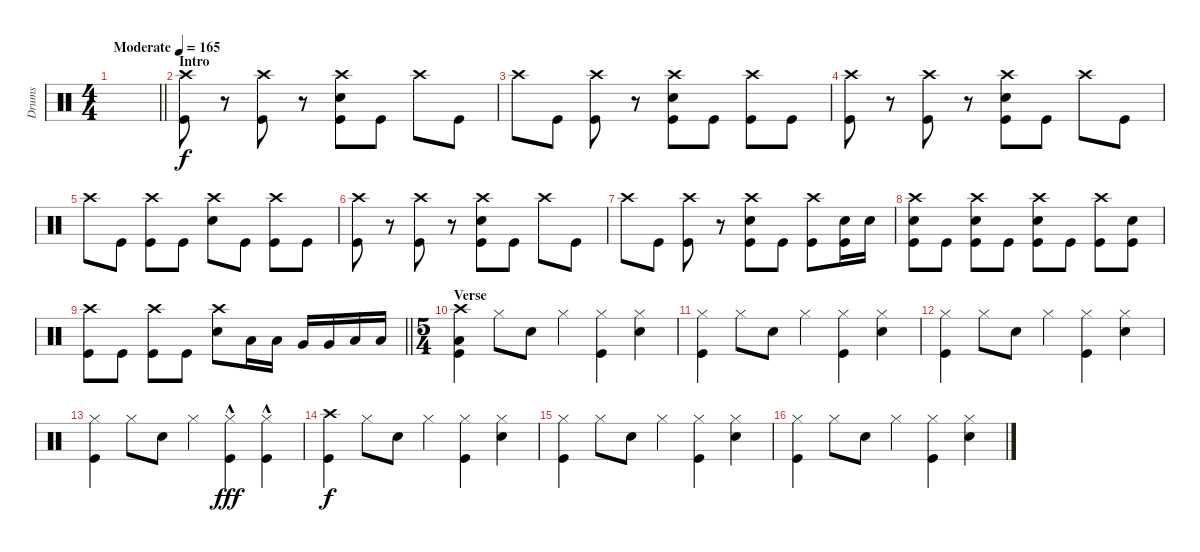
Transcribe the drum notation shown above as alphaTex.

\track ("Drums" "Drums") {instrument percussion}
\staff {score}
\articulation defaults
\ts (4 4)
\tempo (165 "Moderate")
\clef neutral
\barLineRight lightlight
\ks c
|
\section ("" "Intro")
("Crash high (hit)" "Kick (hit)").8 r.8 ("Crash high (hit)" "Kick (hit)").8 r.8 ("Crash high (hit)" "Snare (hit) 2" "Kick (hit)").8 "Kick (hit)".8 "Crash high (hit)".8 "Kick (hit)".8 |
"Crash high (hit)".8 "Kick (hit)".8 ("Crash high (hit)" "Kick (hit)").8 r.8 ("Crash high (hit)" "Snare (hit) 2" "Kick (hit)").8 "Kick (hit)".8 ("Crash high (hit)" "Kick (hit)").8 "Kick (hit)".8 |
("Crash high (hit)" "Kick (hit)").8 r.8 ("Crash high (hit)" "Kick (hit)").8 r.8 ("Crash high (hit)" "Snare (hit) 2" "Kick (hit)").8 "Kick (hit)".8 "Crash high (hit)".8 "Kick (hit)".8 |
"Crash high (hit)".8 "Kick (hit)".8 ("Crash high (hit)" "Kick (hit)").8 "Kick (hit)".8 ("Crash high (hit)" "Snare (hit) 2").8 "Kick (hit)".8 ("Crash high (hit)" "Kick (hit)").8 "Kick (hit)".8 |
("Crash high (hit)" "Kick (hit)").8 r.8 ("Crash high (hit)" "Kick (hit)").8 r.8 ("Crash high (hit)" "Snare (hit) 2" "Kick (hit)").8 "Kick (hit)".8 "Crash high (hit)".8 "Kick (hit)".8 |
"Crash high (hit)".8 "Kick (hit)".8 ("Crash high (hit)" "Kick (hit)").8 r.8 ("Crash high (hit)" "Snare (hit) 2" "Kick (hit)").8 "Kick (hit)".8 ("Crash high (hit)" "Kick (hit)").8 ("Snare (hit) 2" "Kick (hit)").16 "Snare (hit) 2".16 |
("Crash high (hit)" "Snare (hit) 2" "Kick (hit)").8 "Kick (hit)".8 ("Crash high (hit)" "Snare (hit) 2" "Kick (hit)").8 "Kick (hit)".8 ("Crash high (hit)" "Snare (hit) 2" "Kick (hit)").8 "Kick (hit)".8 ("Crash high (hit)" "Kick (hit)").8 ("Snare (hit) 2" "Kick (hit)").8 |
\barLineRight lightlight
("Crash high (hit)" "Kick (hit)").8 "Kick (hit)".8 ("Crash high (hit)" "Kick (hit)").8 "Kick (hit)".8 ("Crash high (hit)" "Snare (hit) 2").8 "Low Tom (hit)".16 "Low Tom (hit)".16 "Very Low Tom (hit)".16 "Very Low Tom (hit)".16 "Low Floor Tom (hit)".16 "Low Floor Tom (hit)".16 |
\ts (5 4)
\section ("" "Verse")
("Crash high (hit)" "Low Floor Tom (hit)" "Kick (hit)").4 "Hi-Hat (closed)".8 "Snare (hit) 2".8 "Hi-Hat (closed)".4 ("Hi-Hat (closed)" "Kick (hit)").4 ("Hi-Hat (closed)" "Snare (hit) 2").4 |
("Hi-Hat (closed)" "Kick (hit)").4 "Hi-Hat (closed)".8 "Snare (hit) 2".8 "Hi-Hat (closed)".4 ("Hi-Hat (closed)" "Kick (hit)").4 ("Hi-Hat (closed)" "Snare (hit) 2").4 |
("Hi-Hat (closed)" "Kick (hit)").4 "Hi-Hat (closed)".8 "Snare (hit) 2".8 "Hi-Hat (closed)".4 ("Hi-Hat (closed)" "Kick (hit)").4 ("Hi-Hat (closed)" "Snare (hit) 2").4 |
("Hi-Hat (closed)" "Kick (hit)").4 "Hi-Hat (closed)".8 "Snare (hit) 2".8 "Hi-Hat (closed)".4 ("Hi-Hat (closed)"{hac} "Kick (hit)").4{dy fff} ("Hi-Hat (closed)"{hac} "Kick (hit)").4 |
("Crash high (hit)" "Kick (hit)").4{dy f} "Hi-Hat (closed)".8 "Snare (hit) 2".8 "Hi-Hat (closed)".4 ("Hi-Hat (closed)" "Kick (hit)").4 ("Hi-Hat (closed)" "Snare (hit) 2").4 |
("Hi-Hat (closed)" "Kick (hit)").4 "Hi-Hat (closed)".8 "Snare (hit) 2".8 "Hi-Hat (closed)".4 ("Hi-Hat (closed)" "Kick (hit)").4 ("Hi-Hat (closed)" "Snare (hit) 2").4 |
("Hi-Hat (closed)" "Kick (hit)").4 "Hi-Hat (closed)".8 "Snare (hit) 2".8 "Hi-Hat (closed)".4 ("Hi-Hat (closed)" "Kick (hit)").4 ("Hi-Hat (closed)" "Snare (hit) 2").4
